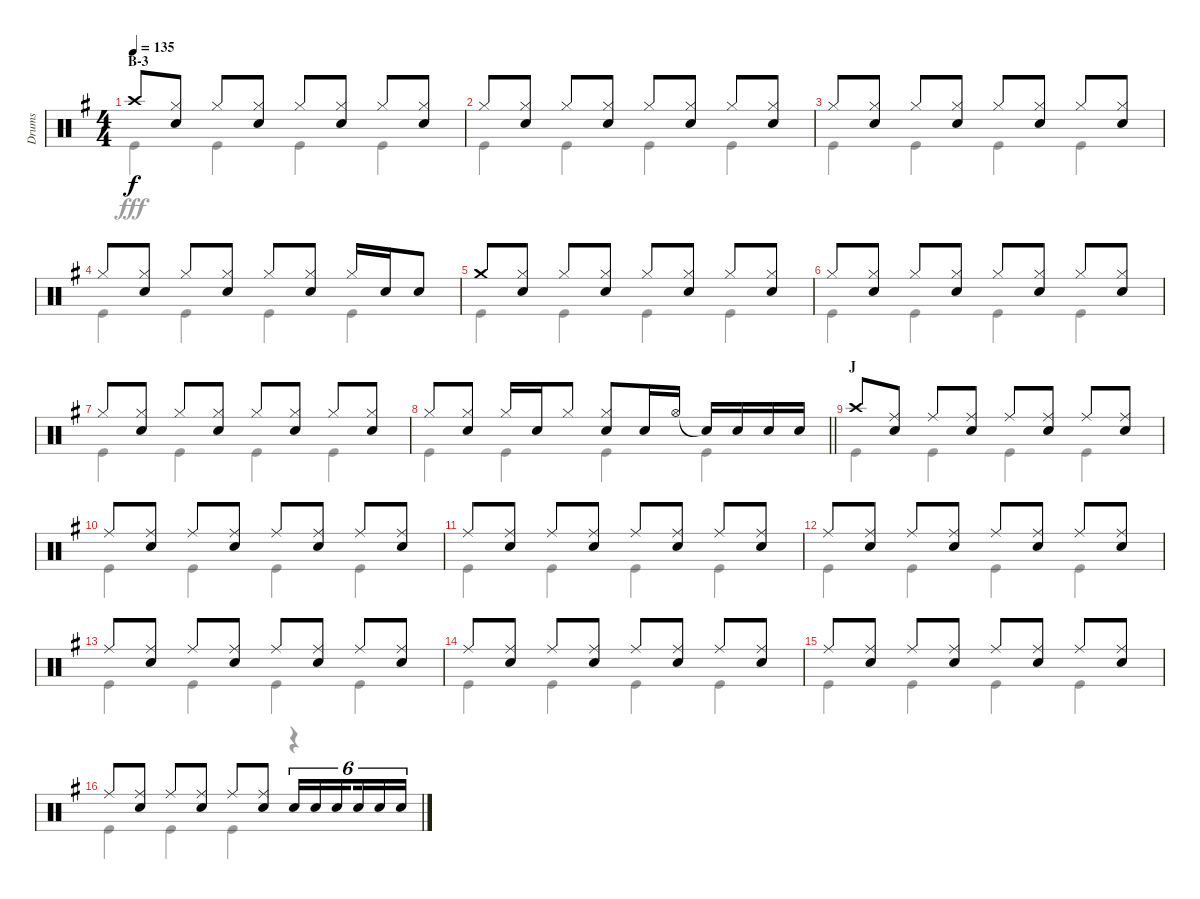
\track ("Drums" "Drums") {instrument percussion}
\staff {score}
\articulation defaults
\voice
\ts (4 4)
\section ("" "B-3")
\tempo 135
\clef neutral
\ks g "Crash high (hit)".8{dy f}
("Hi-Hat (closed)" "Snare (hit) 2").8 "Hi-Hat (closed)".8 ("Hi-Hat (closed)" "Snare (hit) 2").8 "Hi-Hat (closed)".8 ("Hi-Hat (closed)" "Snare (hit) 2").8 "Hi-Hat (closed)".8 ("Hi-Hat (closed)" "Snare (hit) 2").8 |
"Hi-Hat (closed)".8 ("Hi-Hat (closed)" "Snare (hit) 2").8 "Hi-Hat (closed)".8 ("Hi-Hat (closed)" "Snare (hit) 2").8 "Hi-Hat (closed)".8 ("Hi-Hat (closed)" "Snare (hit) 2").8 "Hi-Hat (closed)".8 ("Hi-Hat (closed)" "Snare (hit) 2").8 |
"Hi-Hat (closed)".8 ("Hi-Hat (closed)" "Snare (hit) 2").8 "Hi-Hat (closed)".8 ("Hi-Hat (closed)" "Snare (hit) 2").8 "Hi-Hat (closed)".8 ("Hi-Hat (closed)" "Snare (hit) 2").8 "Hi-Hat (closed)".8 ("Hi-Hat (closed)" "Snare (hit) 2").8 |
"Hi-Hat (closed)".8 ("Hi-Hat (closed)" "Snare (hit) 2").8 "Hi-Hat (closed)".8 ("Hi-Hat (closed)" "Snare (hit) 2").8 "Hi-Hat (closed)".8 ("Hi-Hat (closed)" "Snare (hit) 2").8 "Hi-Hat (closed)".16 "Snare (hit) 2".16 "Snare (hit) 2".8 |
"Crash medium (hit)".8 ("Hi-Hat (closed)" "Snare (hit) 2").8 "Hi-Hat (closed)".8 ("Hi-Hat (closed)" "Snare (hit) 2").8 "Hi-Hat (closed)".8 ("Hi-Hat (closed)" "Snare (hit) 2").8 "Hi-Hat (closed)".8 ("Hi-Hat (closed)" "Snare (hit) 2").8 |
"Hi-Hat (closed)".8 ("Hi-Hat (closed)" "Snare (hit) 2").8 "Hi-Hat (closed)".8 ("Hi-Hat (closed)" "Snare (hit) 2").8 "Hi-Hat (closed)".8 ("Hi-Hat (closed)" "Snare (hit) 2").8 "Hi-Hat (closed)".8 ("Hi-Hat (closed)" "Snare (hit) 2").8 |
"Hi-Hat (closed)".8 ("Hi-Hat (closed)" "Snare (hit) 2").8 "Hi-Hat (closed)".8 ("Hi-Hat (closed)" "Snare (hit) 2").8 "Hi-Hat (closed)".8 ("Hi-Hat (closed)" "Snare (hit) 2").8 "Hi-Hat (closed)".8 ("Hi-Hat (closed)" "Snare (hit) 2").8 |
\barLineRight lightlight "Hi-Hat (closed)".8
("Hi-Hat (closed)" "Snare (hit) 2").8 "Hi-Hat (closed)".16 "Snare (hit) 2".16 "Hi-Hat (closed)".8 ("Hi-Hat (closed)" "Snare (hit) 2").8 "Snare (hit) 2".16 "Hi-Hat (open)".16 "Snare (hit) 2"{t}.16 "Snare (hit) 2".16 "Snare (hit) 2".16 "Snare (hit) 2".16 |
\section ("" "J")
"Crash high (hit)".8 ("Ride (middle)" "Snare (hit) 2").8 "Ride (middle)".8 ("Ride (middle)" "Snare (hit) 2").8 "Ride (middle)".8 ("Ride (middle)" "Snare (hit) 2").8 "Ride (middle)".8 ("Ride (middle)" "Snare (hit) 2").8 |
"Ride (middle)".8 ("Ride (middle)" "Snare (hit) 2").8 "Ride (middle)".8 ("Ride (middle)" "Snare (hit) 2").8 "Ride (middle)".8 ("Ride (middle)" "Snare (hit) 2").8 "Ride (middle)".8 ("Ride (middle)" "Snare (hit) 2").8 |
"Ride (middle)".8 ("Ride (middle)" "Snare (hit) 2").8 "Ride (middle)".8 ("Ride (middle)" "Snare (hit) 2").8 "Ride (middle)".8 ("Ride (middle)" "Snare (hit) 2").8 "Ride (middle)".8 ("Ride (middle)" "Snare (hit) 2").8 |
"Ride (middle)".8 ("Ride (middle)" "Snare (hit) 2").8 "Ride (middle)".8 ("Ride (middle)" "Snare (hit) 2").8 "Ride (middle)".8 ("Ride (middle)" "Snare (hit) 2").8 "Ride (middle)".8 ("Ride (middle)" "Snare (hit) 2").8 |
"Ride (middle)".8 ("Ride (middle)" "Snare (hit) 2").8 "Ride (middle)".8 ("Ride (middle)" "Snare (hit) 2").8 "Ride (middle)".8 ("Ride (middle)" "Snare (hit) 2").8 "Ride (middle)".8 ("Ride (middle)" "Snare (hit) 2").8 |
"Ride (middle)".8 ("Ride (middle)" "Snare (hit) 2").8 "Ride (middle)".8 ("Ride (middle)" "Snare (hit) 2").8 "Ride (middle)".8 ("Ride (middle)" "Snare (hit) 2").8 "Ride (middle)".8 ("Ride (middle)" "Snare (hit) 2").8 |
"Ride (middle)".8 ("Ride (middle)" "Snare (hit) 2").8 "Ride (middle)".8 ("Ride (middle)" "Snare (hit) 2").8 "Ride (middle)".8 ("Ride (middle)" "Snare (hit) 2").8 "Ride (middle)".8 ("Ride (middle)" "Snare (hit) 2").8 |
"Ride (middle)".8 ("Ride (middle)" "Snare (hit) 2").8 "Ride (middle)".8 ("Ride (middle)" "Snare (hit) 2").8 "Ride (middle)".8 ("Ride (middle)" "Snare (hit) 2").8 "Snare (hit) 2".16{tu (6 4)} "Snare (hit) 2".16{tu (6 4)} "Snare (hit) 2".16{tu (6 4) beam splitsecondary} "Snare (hit) 2".16{tu (6 4)} "Snare (hit) 2".16{tu (6 4)} "Snare (hit) 2".16{tu (6 4)}
\voice
\clef neutral
\ottava regular
\simile none
\ks g "Kick (hit)".4{dy fff} "Kick (hit)".4 "Kick (hit)".4 "Kick (hit)".4
|
"Kick (hit)".4 "Kick (hit)".4 "Kick (hit)".4 "Kick (hit)".4 |
"Kick (hit)".4 "Kick (hit)".4 "Kick (hit)".4 "Kick (hit)".4 |
"Kick (hit)".4 "Kick (hit)".4 "Kick (hit)".4 "Kick (hit)".4 |
"Kick (hit)".4 "Kick (hit)".4 "Kick (hit)".4 "Kick (hit)".4 |
"Kick (hit)".4 "Kick (hit)".4 "Kick (hit)".4 "Kick (hit)".4 |
"Kick (hit)".4 "Kick (hit)".4 "Kick (hit)".4 "Kick (hit)".4 |
\barLineRight lightlight "Kick (hit)".4 "Kick (hit)".4 "Kick (hit)".4 "Kick (hit)".4
|
"Kick (hit)".4 "Kick (hit)".4 "Kick (hit)".4 "Kick (hit)".4 |
"Kick (hit)".4 "Kick (hit)".4 "Kick (hit)".4 "Kick (hit)".4 |
"Kick (hit)".4 "Kick (hit)".4 "Kick (hit)".4 "Kick (hit)".4 |
"Kick (hit)".4 "Kick (hit)".4 "Kick (hit)".4 "Kick (hit)".4 |
"Kick (hit)".4 "Kick (hit)".4 "Kick (hit)".4 "Kick (hit)".4 |
"Kick (hit)".4 "Kick (hit)".4 "Kick (hit)".4 "Kick (hit)".4 |
"Kick (hit)".4 "Kick (hit)".4 "Kick (hit)".4 "Kick (hit)".4 |
"Kick (hit)".4 "Kick (hit)".4 "Kick (hit)".4 r.4
